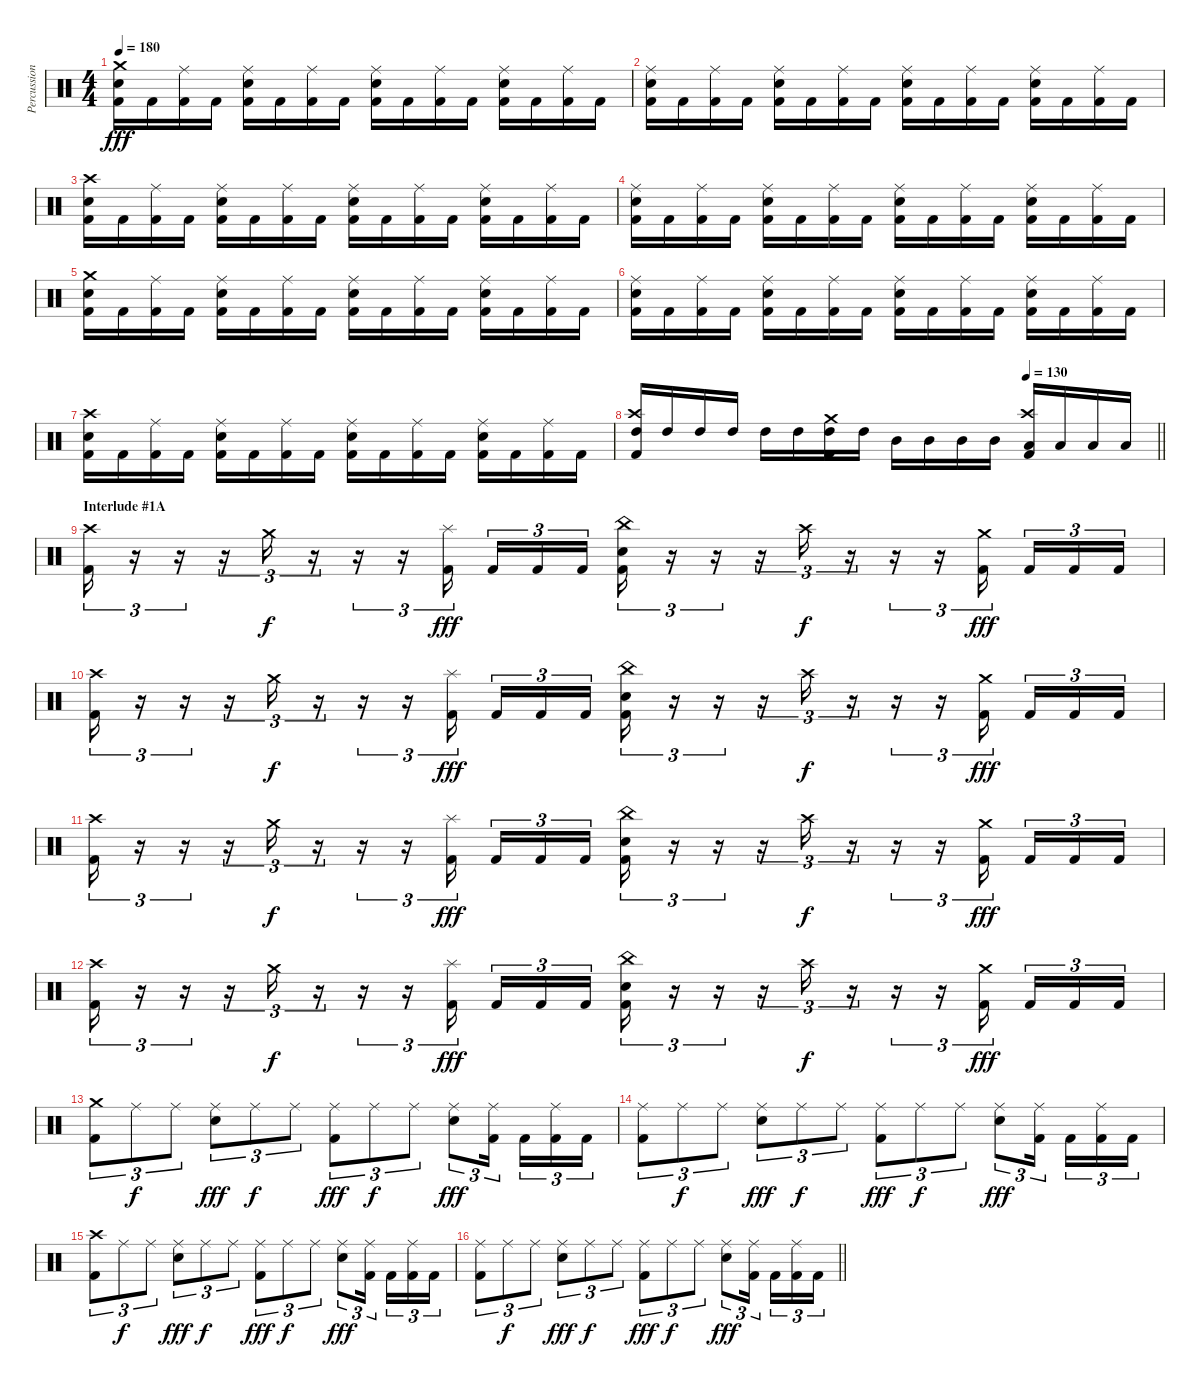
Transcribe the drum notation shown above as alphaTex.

\track ("Percussions" "Percussion") {instrument percussion}
\staff {score}
\articulation defaults
\ts (4 4)
\tempo 180
\clef neutral
\ks c
("Crash medium (hit)" "Snare (hit) 2" "Kick (hit) 2").16{dy fff} "Kick (hit) 2".16 ("Ride (middle)" "Kick (hit) 2").16 "Kick (hit) 2".16 ("Ride (middle)" "Snare (hit) 2" "Kick (hit) 2").16 "Kick (hit) 2".16 ("Ride (middle)" "Kick (hit) 2").16 "Kick (hit) 2".16 ("Ride (middle)" "Snare (hit) 2" "Kick (hit) 2").16 "Kick (hit) 2".16 ("Ride (middle)" "Kick (hit) 2").16 "Kick (hit) 2".16 ("Ride (middle)" "Snare (hit) 2" "Kick (hit) 2").16 "Kick (hit) 2".16 ("Ride (middle)" "Kick (hit) 2").16 "Kick (hit) 2".16 |
("Ride (middle)" "Snare (hit) 2" "Kick (hit) 2").16 "Kick (hit) 2".16 ("Ride (middle)" "Kick (hit) 2").16 "Kick (hit) 2".16 ("Ride (middle)" "Snare (hit) 2" "Kick (hit) 2").16 "Kick (hit) 2".16 ("Ride (middle)" "Kick (hit) 2").16 "Kick (hit) 2".16 ("Ride (middle)" "Snare (hit) 2" "Kick (hit) 2").16 "Kick (hit) 2".16 ("Ride (middle)" "Kick (hit) 2").16 "Kick (hit) 2".16 ("Ride (middle)" "Snare (hit) 2" "Kick (hit) 2").16 "Kick (hit) 2".16 ("Ride (middle)" "Kick (hit) 2").16 "Kick (hit) 2".16 |
("Crash high (hit)" "Snare (hit) 2" "Kick (hit) 2").16 "Kick (hit) 2".16 ("Ride (middle)" "Kick (hit) 2").16 "Kick (hit) 2".16 ("Ride (middle)" "Snare (hit) 2" "Kick (hit) 2").16 "Kick (hit) 2".16 ("Ride (middle)" "Kick (hit) 2").16 "Kick (hit) 2".16 ("Ride (middle)" "Snare (hit) 2" "Kick (hit) 2").16 "Kick (hit) 2".16 ("Ride (middle)" "Kick (hit) 2").16 "Kick (hit) 2".16 ("Ride (middle)" "Snare (hit) 2" "Kick (hit) 2").16 "Kick (hit) 2".16 ("Ride (middle)" "Kick (hit) 2").16 "Kick (hit) 2".16 |
("Ride (middle)" "Snare (hit) 2" "Kick (hit) 2").16 "Kick (hit) 2".16 ("Ride (middle)" "Kick (hit) 2").16 "Kick (hit) 2".16 ("Ride (middle)" "Snare (hit) 2" "Kick (hit) 2").16 "Kick (hit) 2".16 ("Ride (middle)" "Kick (hit) 2").16 "Kick (hit) 2".16 ("Ride (middle)" "Snare (hit) 2" "Kick (hit) 2").16 "Kick (hit) 2".16 ("Ride (middle)" "Kick (hit) 2").16 "Kick (hit) 2".16 ("Ride (middle)" "Snare (hit) 2" "Kick (hit) 2").16 "Kick (hit) 2".16 ("Ride (middle)" "Kick (hit) 2").16 "Kick (hit) 2".16 |
("Crash medium (hit)" "Snare (hit) 2" "Kick (hit) 2").16 "Kick (hit) 2".16 ("Ride (middle)" "Kick (hit) 2").16 "Kick (hit) 2".16 ("Ride (middle)" "Snare (hit) 2" "Kick (hit) 2").16 "Kick (hit) 2".16 ("Ride (middle)" "Kick (hit) 2").16 "Kick (hit) 2".16 ("Ride (middle)" "Snare (hit) 2" "Kick (hit) 2").16 "Kick (hit) 2".16 ("Ride (middle)" "Kick (hit) 2").16 "Kick (hit) 2".16 ("Ride (middle)" "Snare (hit) 2" "Kick (hit) 2").16 "Kick (hit) 2".16 ("Ride (middle)" "Kick (hit) 2").16 "Kick (hit) 2".16 |
("Ride (middle)" "Snare (hit) 2" "Kick (hit) 2").16 "Kick (hit) 2".16 ("Ride (middle)" "Kick (hit) 2").16 "Kick (hit) 2".16 ("Ride (middle)" "Snare (hit) 2" "Kick (hit) 2").16 "Kick (hit) 2".16 ("Ride (middle)" "Kick (hit) 2").16 "Kick (hit) 2".16 ("Ride (middle)" "Snare (hit) 2" "Kick (hit) 2").16 "Kick (hit) 2".16 ("Ride (middle)" "Kick (hit) 2").16 "Kick (hit) 2".16 ("Ride (middle)" "Snare (hit) 2" "Kick (hit) 2").16 "Kick (hit) 2".16 ("Ride (middle)" "Kick (hit) 2").16 "Kick (hit) 2".16 |
("Crash high (hit)" "Snare (hit) 2" "Kick (hit) 2").16 "Kick (hit) 2".16 ("Ride (middle)" "Kick (hit) 2").16 "Kick (hit) 2".16 ("Ride (middle)" "Snare (hit) 2" "Kick (hit) 2").16 "Kick (hit) 2".16 ("Ride (middle)" "Kick (hit) 2").16 "Kick (hit) 2".16 ("Ride (middle)" "Snare (hit) 2" "Kick (hit) 2").16 "Kick (hit) 2".16 ("Ride (middle)" "Kick (hit) 2").16 "Kick (hit) 2".16 ("Ride (middle)" "Snare (hit) 2" "Kick (hit) 2").16 "Kick (hit) 2".16 ("Ride (middle)" "Kick (hit) 2").16 "Kick (hit) 2".16 |
\tempo (130 0.75)
\barLineRight lightlight
("Crash high (hit)" "High Tom (hit)" "Kick (hit) 2").16 "High Tom (hit)".16 "High Tom (hit)".16 "High Tom (hit)".16 "High Tom (hit)".16 "High Tom (hit)".16 ("Crash medium (hit)" "High Tom (hit)" "Kick (hit) 2").16 "High Tom (hit)".16 "Mid Tom (hit)".16 "Mid Tom (hit)".16 "Mid Tom (hit)".16 "Mid Tom (hit)".16 ("Crash high (hit)" "Low Tom (hit)" "Kick (hit) 2").16 "Low Tom (hit)".16 "Low Tom (hit)".16 "Low Tom (hit)".16 |
\section ("" "Interlude #1A")
("Crash high (hit)" "Kick (hit) 2").16{tu (3 2)} r.16{tu (3 2)} r.16{tu (3 2)} r.16{tu (3 2)} "Crash medium (hit)".16{tu (3 2) dy f} r.16{tu (3 2)} r.16{tu (3 2)} r.16{tu (3 2)} ("Splash (hit)" "Kick (hit) 2").16{tu (3 2) dy fff beam splitsecondary} "Kick (hit) 2".16{tu (3 2)} "Kick (hit) 2".16{tu (3 2)} "Kick (hit) 2".16{tu (3 2)} ("China (hit)" "Snare (hit) 2" "Kick (hit) 2").16{tu (3 2)} r.16{tu (3 2)} r.16{tu (3 2)} r.16{tu (3 2)} "Crash high (hit)".16{tu (3 2) dy f} r.16{tu (3 2)} r.16{tu (3 2)} r.16{tu (3 2)} ("Crash medium (hit)" "Kick (hit) 2").16{tu (3 2) dy fff beam splitsecondary} "Kick (hit) 2".16{tu (3 2)} "Kick (hit) 2".16{tu (3 2)} "Kick (hit) 2".16{tu (3 2)} |
("Crash high (hit)" "Kick (hit) 2").16{tu (3 2)} r.16{tu (3 2)} r.16{tu (3 2)} r.16{tu (3 2)} "Crash medium (hit)".16{tu (3 2) dy f} r.16{tu (3 2)} r.16{tu (3 2)} r.16{tu (3 2)} ("Splash (hit)" "Kick (hit) 2").16{tu (3 2) dy fff beam splitsecondary} "Kick (hit) 2".16{tu (3 2)} "Kick (hit) 2".16{tu (3 2)} "Kick (hit) 2".16{tu (3 2)} ("China (hit)" "Snare (hit) 2" "Kick (hit) 2").16{tu (3 2)} r.16{tu (3 2)} r.16{tu (3 2)} r.16{tu (3 2)} "Crash high (hit)".16{tu (3 2) dy f} r.16{tu (3 2)} r.16{tu (3 2)} r.16{tu (3 2)} ("Crash medium (hit)" "Kick (hit) 2").16{tu (3 2) dy fff beam splitsecondary} "Kick (hit) 2".16{tu (3 2)} "Kick (hit) 2".16{tu (3 2)} "Kick (hit) 2".16{tu (3 2)} |
("Crash high (hit)" "Kick (hit) 2").16{tu (3 2)} r.16{tu (3 2)} r.16{tu (3 2)} r.16{tu (3 2)} "Crash medium (hit)".16{tu (3 2) dy f} r.16{tu (3 2)} r.16{tu (3 2)} r.16{tu (3 2)} ("Splash (hit)" "Kick (hit) 2").16{tu (3 2) dy fff beam splitsecondary} "Kick (hit) 2".16{tu (3 2)} "Kick (hit) 2".16{tu (3 2)} "Kick (hit) 2".16{tu (3 2)} ("China (hit)" "Snare (hit) 2" "Kick (hit) 2").16{tu (3 2)} r.16{tu (3 2)} r.16{tu (3 2)} r.16{tu (3 2)} "Crash high (hit)".16{tu (3 2) dy f} r.16{tu (3 2)} r.16{tu (3 2)} r.16{tu (3 2)} ("Crash medium (hit)" "Kick (hit) 2").16{tu (3 2) dy fff beam splitsecondary} "Kick (hit) 2".16{tu (3 2)} "Kick (hit) 2".16{tu (3 2)} "Kick (hit) 2".16{tu (3 2)} |
("Crash high (hit)" "Kick (hit) 2").16{tu (3 2)} r.16{tu (3 2)} r.16{tu (3 2)} r.16{tu (3 2)} "Crash medium (hit)".16{tu (3 2) dy f} r.16{tu (3 2)} r.16{tu (3 2)} r.16{tu (3 2)} ("Splash (hit)" "Kick (hit) 2").16{tu (3 2) dy fff beam splitsecondary} "Kick (hit) 2".16{tu (3 2)} "Kick (hit) 2".16{tu (3 2)} "Kick (hit) 2".16{tu (3 2)} ("China (hit)" "Snare (hit) 2" "Kick (hit) 2").16{tu (3 2)} r.16{tu (3 2)} r.16{tu (3 2)} r.16{tu (3 2)} "Crash high (hit)".16{tu (3 2) dy f} r.16{tu (3 2)} r.16{tu (3 2)} r.16{tu (3 2)} ("Crash medium (hit)" "Kick (hit) 2").16{tu (3 2) dy fff beam splitsecondary} "Kick (hit) 2".16{tu (3 2)} "Kick (hit) 2".16{tu (3 2)} "Kick (hit) 2".16{tu (3 2)} |
("Crash medium (hit)" "Kick (hit) 2").8{tu (3 2)} "Ride (middle)".8{tu (3 2) dy f} "Ride (middle)".8{tu (3 2)} ("Ride (middle)" "Snare (hit) 2").8{tu (3 2) dy fff} "Ride (middle)".8{tu (3 2) dy f} "Ride (middle)".8{tu (3 2)} ("Ride (middle)" "Kick (hit) 2").8{tu (3 2) dy fff} "Ride (middle)".8{tu (3 2) dy f} "Ride (middle)".8{tu (3 2)} ("Ride (middle)" "Snare (hit) 2").8{tu (3 2) dy fff} ("Ride (middle)" "Kick (hit) 2").16{tu (3 2) beam splitsecondary} "Kick (hit) 2".16{tu (3 2)} ("Ride (middle)" "Kick (hit) 2").16{tu (3 2)} "Kick (hit) 2".16{tu (3 2)} |
("Ride (middle)" "Kick (hit) 2").8{tu (3 2)} "Ride (middle)".8{tu (3 2) dy f} "Ride (middle)".8{tu (3 2)} ("Ride (middle)" "Snare (hit) 2").8{tu (3 2) dy fff} "Ride (middle)".8{tu (3 2) dy f} "Ride (middle)".8{tu (3 2)} ("Ride (middle)" "Kick (hit) 2").8{tu (3 2) dy fff} "Ride (middle)".8{tu (3 2) dy f} "Ride (middle)".8{tu (3 2)} ("Ride (middle)" "Snare (hit) 2").8{tu (3 2) dy fff} ("Ride (middle)" "Kick (hit) 2").16{tu (3 2) beam splitsecondary} "Kick (hit) 2".16{tu (3 2)} ("Ride (middle)" "Kick (hit) 2").16{tu (3 2)} "Kick (hit) 2".16{tu (3 2)} |
("Crash high (hit)" "Kick (hit) 2").8{tu (3 2)} "Ride (middle)".8{tu (3 2) dy f} "Ride (middle)".8{tu (3 2)} ("Ride (middle)" "Snare (hit) 2").8{tu (3 2) dy fff} "Ride (middle)".8{tu (3 2) dy f} "Ride (middle)".8{tu (3 2)} ("Ride (middle)" "Kick (hit) 2").8{tu (3 2) dy fff} "Ride (middle)".8{tu (3 2) dy f} "Ride (middle)".8{tu (3 2)} ("Ride (middle)" "Snare (hit) 2").8{tu (3 2) dy fff} ("Ride (middle)" "Kick (hit) 2").16{tu (3 2) beam splitsecondary} "Kick (hit) 2".16{tu (3 2)} ("Ride (middle)" "Kick (hit) 2").16{tu (3 2)} "Kick (hit) 2".16{tu (3 2)} |
\barLineRight lightlight
("Ride (middle)" "Kick (hit) 2").8{tu (3 2)} "Ride (middle)".8{tu (3 2) dy f} "Ride (middle)".8{tu (3 2)} ("Ride (middle)" "Snare (hit) 2").8{tu (3 2) dy fff} "Ride (middle)".8{tu (3 2) dy f} "Ride (middle)".8{tu (3 2)} ("Ride (middle)" "Kick (hit) 2").8{tu (3 2) dy fff} "Ride (middle)".8{tu (3 2) dy f} "Ride (middle)".8{tu (3 2)} ("Ride (middle)" "Snare (hit) 2").8{tu (3 2) dy fff} ("Ride (middle)" "Kick (hit) 2").16{tu (3 2) beam splitsecondary} "Kick (hit) 2".16{tu (3 2)} ("Ride (middle)" "Kick (hit) 2").16{tu (3 2)} "Kick (hit) 2".16{tu (3 2)}
